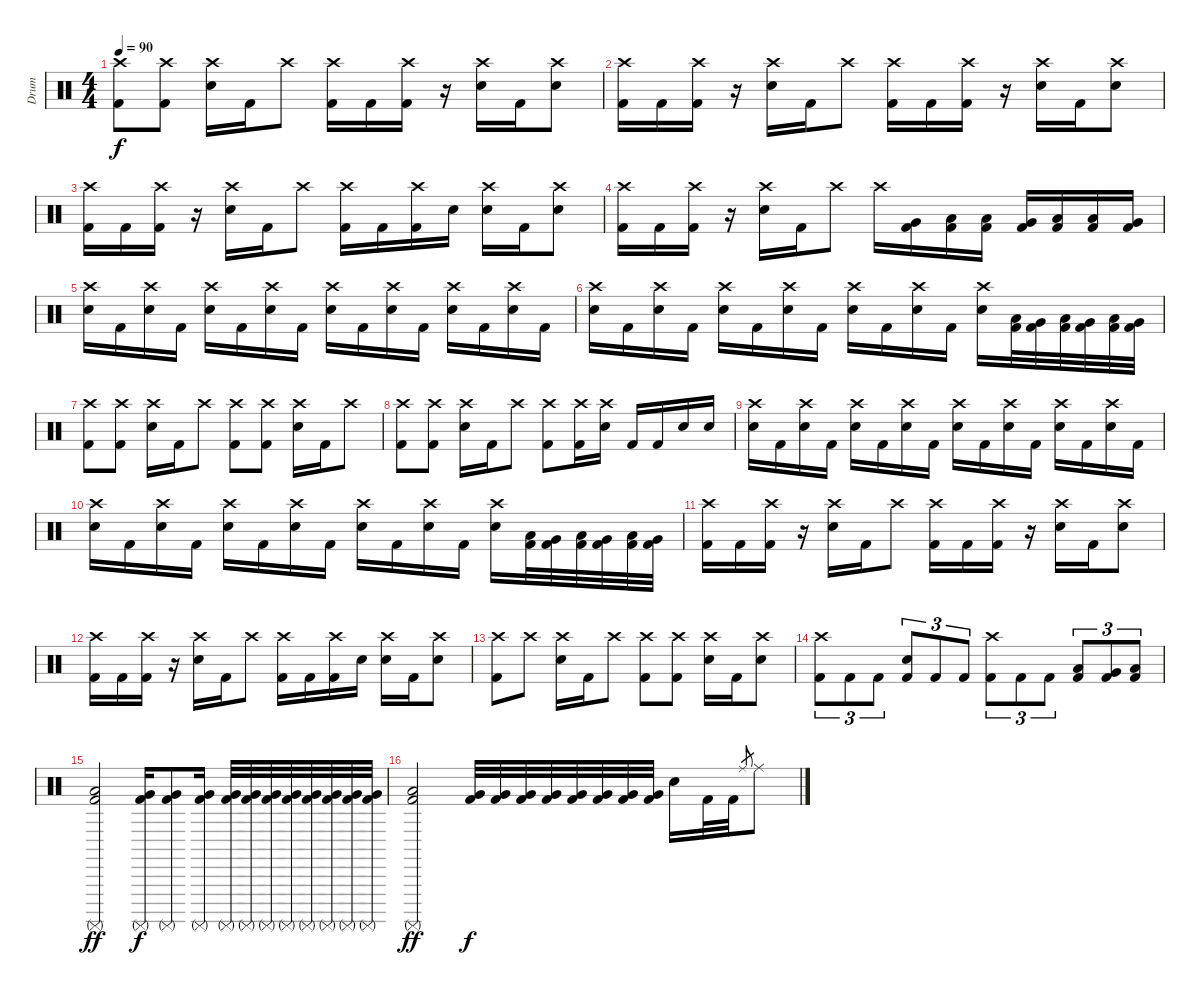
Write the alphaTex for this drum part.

\track ("Drum" "Drum") {instrument percussion}
\staff {score}
\articulation defaults
\ts (4 4)
\tempo 90
\clef neutral
\ks c
("Crash high (hit)" "Kick (hit) 2").8{dy f} ("Crash high (hit)" "Kick (hit) 2").8 ("Crash high (hit)" "Electric Snare (hit)").16 "Kick (hit) 2".16 "Crash high (hit)".8 ("Crash high (hit)" "Kick (hit) 2").16 "Kick (hit) 2".16 ("Crash high (hit)" "Kick (hit) 2").16 r.16 ("Crash high (hit)" "Electric Snare (hit)").16 "Kick (hit) 2".16 ("Crash high (hit)" "Electric Snare (hit)").8 |
("Crash high (hit)" "Kick (hit) 2").16 "Kick (hit) 2".16 ("Crash high (hit)" "Kick (hit) 2").16 r.16 ("Crash high (hit)" "Electric Snare (hit)").16 "Kick (hit) 2".16 "Crash high (hit)".8 ("Crash high (hit)" "Kick (hit) 2").16 "Kick (hit) 2".16 ("Crash high (hit)" "Kick (hit) 2").16 r.16 ("Crash high (hit)" "Electric Snare (hit)").16 "Kick (hit) 2".16 ("Crash high (hit)" "Electric Snare (hit)").8 |
("Crash high (hit)" "Kick (hit) 2").16 "Kick (hit) 2".16 ("Crash high (hit)" "Kick (hit) 2").16 r.16 ("Crash high (hit)" "Electric Snare (hit)").16 "Kick (hit) 2".16 "Crash high (hit)".8 ("Crash high (hit)" "Kick (hit) 2").16 "Kick (hit) 2".16 ("Crash high (hit)" "Kick (hit) 2").16 "Electric Snare (hit)".16 ("Crash high (hit)" "Electric Snare (hit)").16 "Kick (hit) 2".16 ("Crash high (hit)" "Electric Snare (hit)").8 |
("Crash high (hit)" "Kick (hit) 2").16 "Kick (hit) 2".16 ("Crash high (hit)" "Kick (hit) 2").16 r.16 ("Crash high (hit)" "Electric Snare (hit)").16 "Kick (hit) 2".16 "Crash high (hit)".8 "Crash high (hit)".16 ("Very Low Tom (hit)" "Kick (hit) 2").16 ("Low Floor Tom (hit)" "Kick (hit) 2").16 ("Low Tom (hit)" "Kick (hit) 2").16 ("Very Low Tom (hit)" "Kick (hit) 2").16 ("Low Floor Tom (hit)" "Kick (hit) 2").16 ("Low Floor Tom (hit)" "Kick (hit) 2").16 ("Very Low Tom (hit)" "Kick (hit) 2").16 |
("Crash high (hit)" "Electric Snare (hit)").16 "Kick (hit) 2".16 ("Crash high (hit)" "Electric Snare (hit)").16 "Kick (hit) 2".16 ("Crash high (hit)" "Electric Snare (hit)").16 "Kick (hit) 2".16 ("Crash high (hit)" "Electric Snare (hit)").16 "Kick (hit) 2".16 ("Crash high (hit)" "Electric Snare (hit)").16 "Kick (hit) 2".16 ("Crash high (hit)" "Electric Snare (hit)").16 "Kick (hit) 2".16 ("Crash high (hit)" "Electric Snare (hit)").16 "Kick (hit) 2".16 ("Crash high (hit)" "Electric Snare (hit)").16 "Kick (hit) 2".16 |
("Crash high (hit)" "Electric Snare (hit)").16 "Kick (hit) 2".16 ("Crash high (hit)" "Electric Snare (hit)").16 "Kick (hit) 2".16 ("Crash high (hit)" "Electric Snare (hit)").16 "Kick (hit) 2".16 ("Crash high (hit)" "Electric Snare (hit)").16 "Kick (hit) 2".16 ("Crash high (hit)" "Electric Snare (hit)").16 "Kick (hit) 2".16 ("Crash high (hit)" "Electric Snare (hit)").16 "Kick (hit) 2".16 ("Crash high (hit)" "Electric Snare (hit)").16 ("Low Tom (hit)" "Kick (hit) 2").32 ("Very Low Tom (hit)" "Kick (hit) 2").32 ("Low Tom (hit)" "Kick (hit) 2").32 ("Very Low Tom (hit)" "Kick (hit) 2").32 ("Low Floor Tom (hit)" "Kick (hit) 2").32 ("Very Low Tom (hit)" "Kick (hit) 2").32 |
("Crash high (hit)" "Kick (hit) 2").8 ("Crash high (hit)" "Kick (hit) 2").8 ("Crash high (hit)" "Electric Snare (hit)").16 "Kick (hit) 2".16 "Crash high (hit)".8 ("Crash high (hit)" "Kick (hit) 2").8 ("Crash high (hit)" "Kick (hit) 2").8 ("Crash high (hit)" "Electric Snare (hit)").16 "Kick (hit) 2".16 "Crash high (hit)".8 |
("Crash high (hit)" "Kick (hit) 2").8 ("Crash high (hit)" "Kick (hit) 2").8 ("Crash high (hit)" "Electric Snare (hit)").16 "Kick (hit) 2".16 "Crash high (hit)".8 ("Crash high (hit)" "Kick (hit) 2").8 ("Crash high (hit)" "Kick (hit) 2").16 ("Crash high (hit)" "Electric Snare (hit)").16 "Kick (hit) 2".16 "Kick (hit) 2".16 "Electric Snare (hit)".16 "Electric Snare (hit)".16 |
("Crash high (hit)" "Electric Snare (hit)").16 "Kick (hit) 2".16 ("Crash high (hit)" "Electric Snare (hit)").16 "Kick (hit) 2".16 ("Crash high (hit)" "Electric Snare (hit)").16 "Kick (hit) 2".16 ("Crash high (hit)" "Electric Snare (hit)").16 "Kick (hit) 2".16 ("Crash high (hit)" "Electric Snare (hit)").16 "Kick (hit) 2".16 ("Crash high (hit)" "Electric Snare (hit)").16 "Kick (hit) 2".16 ("Crash high (hit)" "Electric Snare (hit)").16 "Kick (hit) 2".16 ("Crash high (hit)" "Electric Snare (hit)").16 "Kick (hit) 2".16 |
("Crash high (hit)" "Electric Snare (hit)").16 "Kick (hit) 2".16 ("Crash high (hit)" "Electric Snare (hit)").16 "Kick (hit) 2".16 ("Crash high (hit)" "Electric Snare (hit)").16 "Kick (hit) 2".16 ("Crash high (hit)" "Electric Snare (hit)").16 "Kick (hit) 2".16 ("Crash high (hit)" "Electric Snare (hit)").16 "Kick (hit) 2".16 ("Crash high (hit)" "Electric Snare (hit)").16 "Kick (hit) 2".16 ("Crash high (hit)" "Electric Snare (hit)").16 ("Low Tom (hit)" "Kick (hit) 2").32 ("Very Low Tom (hit)" "Kick (hit) 2").32 ("Low Tom (hit)" "Kick (hit) 2").32 ("Very Low Tom (hit)" "Kick (hit) 2").32 ("Low Floor Tom (hit)" "Kick (hit) 2").32 ("Very Low Tom (hit)" "Kick (hit) 2").32 |
("Crash high (hit)" "Kick (hit) 2").16 "Kick (hit) 2".16 ("Crash high (hit)" "Kick (hit) 2").16 r.16 ("Crash high (hit)" "Electric Snare (hit)").16 "Kick (hit) 2".16 "Crash high (hit)".8 ("Crash high (hit)" "Kick (hit) 2").16 "Kick (hit) 2".16 ("Crash high (hit)" "Kick (hit) 2").16 r.16 ("Crash high (hit)" "Electric Snare (hit)").16 "Kick (hit) 2".16 ("Crash high (hit)" "Electric Snare (hit)").8 |
("Crash high (hit)" "Kick (hit) 2").16 "Kick (hit) 2".16 ("Crash high (hit)" "Kick (hit) 2").16 r.16 ("Crash high (hit)" "Electric Snare (hit)").16 "Kick (hit) 2".16 "Crash high (hit)".8 ("Crash high (hit)" "Kick (hit) 2").16 "Kick (hit) 2".16 ("Crash high (hit)" "Kick (hit) 2").16 "Electric Snare (hit)".16 ("Crash high (hit)" "Electric Snare (hit)").16 "Kick (hit) 2".16 ("Crash high (hit)" "Electric Snare (hit)").8 |
("Crash high (hit)" "Kick (hit) 2").8 "Crash high (hit)".8 ("Crash high (hit)" "Electric Snare (hit)").16 "Kick (hit) 2".16 "Crash high (hit)".8 ("Crash high (hit)" "Kick (hit) 2").8 ("Crash high (hit)" "Kick (hit) 2").8 ("Crash high (hit)" "Electric Snare (hit)").16 "Kick (hit) 2".16 ("Crash high (hit)" "Electric Snare (hit)").8 |
("Crash high (hit)" "Kick (hit) 2").8{tu (3 2)} "Kick (hit) 2".8{tu (3 2)} "Kick (hit) 2".8{tu (3 2)} ("Electric Snare (hit)" "Kick (hit) 2").8{tu (3 2)} "Kick (hit) 2".8{tu (3 2)} "Kick (hit) 2".8{tu (3 2)} ("Crash high (hit)" "Kick (hit) 2").8{tu (3 2)} "Kick (hit) 2".8{tu (3 2)} "Kick (hit) 2".8{tu (3 2)} ("Low Tom (hit)" "Kick (hit) 2").8{tu (3 2)} ("Very Low Tom (hit)" "Kick (hit) 2").8{tu (3 2)} ("Low Floor Tom (hit)" "Kick (hit) 2").8{tu (3 2)} |
("Surdo (mute)" "Low Floor Tom (hit)" "Kick (hit) 2").2{dy ff} ("Surdo (mute)" "Very Low Tom (hit)" "Kick (hit) 2").16{dy f} ("Surdo (mute)" "Very Low Tom (hit)" "Kick (hit) 2").8 ("Surdo (mute)" "Very Low Tom (hit)" "Kick (hit) 2").16 ("Surdo (mute)" "Very Low Tom (hit)" "Kick (hit) 2").32 ("Surdo (mute)" "Very Low Tom (hit)" "Kick (hit) 2").32 ("Surdo (mute)" "Very Low Tom (hit)" "Kick (hit) 2").32 ("Surdo (mute)" "Very Low Tom (hit)" "Kick (hit) 2").32 ("Surdo (mute)" "Very Low Tom (hit)" "Kick (hit) 2").32 ("Surdo (mute)" "Very Low Tom (hit)" "Kick (hit) 2").32 ("Surdo (mute)" "Very Low Tom (hit)" "Kick (hit) 2").32 ("Surdo (mute)" "Very Low Tom (hit)" "Kick (hit) 2").32 |
("Surdo (mute)" "Low Floor Tom (hit)" "Kick (hit) 2").2{dy ff} ("Very Low Tom (hit)" "Kick (hit) 2").32{dy f} ("Very Low Tom (hit)" "Kick (hit) 2").32 ("Very Low Tom (hit)" "Kick (hit) 2").32 ("Very Low Tom (hit)" "Kick (hit) 2").32 ("Very Low Tom (hit)" "Kick (hit) 2").32 ("Very Low Tom (hit)" "Kick (hit) 2").32 ("Very Low Tom (hit)" "Kick (hit) 2").32 ("Very Low Tom (hit)" "Kick (hit) 2").32 "Electric Snare (hit)".16 "Kick (hit) 2".32 "Kick (hit) 2".32 "Ride (middle)".8{gr} "Ride (middle)".8
